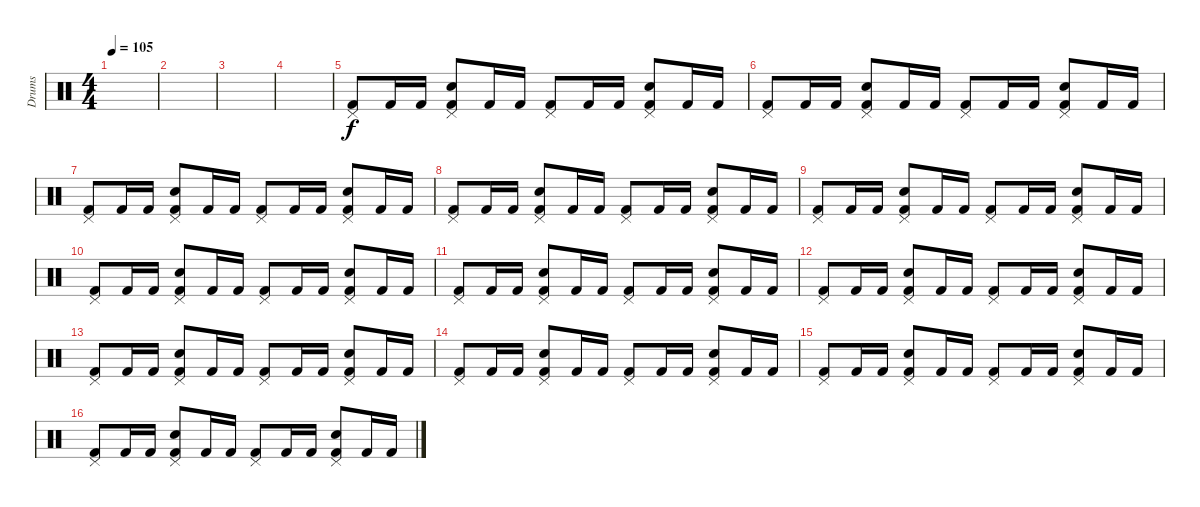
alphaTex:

\track ("Drums" "Drums") {instrument percussion}
\staff {score}
\articulation defaults
\ts (4 4)
\tempo 105
\clef neutral
\ks c
|
|
|
|
("Pedal Hi-Hat (hit)" "Kick (hit) 2").8 "Kick (hit) 2".16 "Kick (hit) 2".16 ("Pedal Hi-Hat (hit)" "Electric Snare (hit)" "Kick (hit) 2").8 "Kick (hit) 2".16 "Kick (hit) 2".16 ("Pedal Hi-Hat (hit)" "Kick (hit) 2").8 "Kick (hit) 2".16 "Kick (hit) 2".16 ("Pedal Hi-Hat (hit)" "Electric Snare (hit)" "Kick (hit) 2").8 "Kick (hit) 2".16 "Kick (hit) 2".16 |
("Pedal Hi-Hat (hit)" "Kick (hit) 2").8 "Kick (hit) 2".16 "Kick (hit) 2".16 ("Pedal Hi-Hat (hit)" "Electric Snare (hit)" "Kick (hit) 2").8 "Kick (hit) 2".16 "Kick (hit) 2".16 ("Pedal Hi-Hat (hit)" "Kick (hit) 2").8 "Kick (hit) 2".16 "Kick (hit) 2".16 ("Pedal Hi-Hat (hit)" "Electric Snare (hit)" "Kick (hit) 2").8 "Kick (hit) 2".16 "Kick (hit) 2".16 |
("Pedal Hi-Hat (hit)" "Kick (hit) 2").8 "Kick (hit) 2".16 "Kick (hit) 2".16 ("Pedal Hi-Hat (hit)" "Electric Snare (hit)" "Kick (hit) 2").8 "Kick (hit) 2".16 "Kick (hit) 2".16 ("Pedal Hi-Hat (hit)" "Kick (hit) 2").8 "Kick (hit) 2".16 "Kick (hit) 2".16 ("Pedal Hi-Hat (hit)" "Electric Snare (hit)" "Kick (hit) 2").8 "Kick (hit) 2".16 "Kick (hit) 2".16 |
("Pedal Hi-Hat (hit)" "Kick (hit) 2").8 "Kick (hit) 2".16 "Kick (hit) 2".16 ("Pedal Hi-Hat (hit)" "Electric Snare (hit)" "Kick (hit) 2").8 "Kick (hit) 2".16 "Kick (hit) 2".16 ("Pedal Hi-Hat (hit)" "Kick (hit) 2").8 "Kick (hit) 2".16 "Kick (hit) 2".16 ("Pedal Hi-Hat (hit)" "Electric Snare (hit)" "Kick (hit) 2").8 "Kick (hit) 2".16 "Kick (hit) 2".16 |
("Pedal Hi-Hat (hit)" "Kick (hit) 2").8 "Kick (hit) 2".16 "Kick (hit) 2".16 ("Pedal Hi-Hat (hit)" "Electric Snare (hit)" "Kick (hit) 2").8 "Kick (hit) 2".16 "Kick (hit) 2".16 ("Pedal Hi-Hat (hit)" "Kick (hit) 2").8 "Kick (hit) 2".16 "Kick (hit) 2".16 ("Pedal Hi-Hat (hit)" "Electric Snare (hit)" "Kick (hit) 2").8 "Kick (hit) 2".16 "Kick (hit) 2".16 |
("Pedal Hi-Hat (hit)" "Kick (hit) 2").8 "Kick (hit) 2".16 "Kick (hit) 2".16 ("Pedal Hi-Hat (hit)" "Electric Snare (hit)" "Kick (hit) 2").8 "Kick (hit) 2".16 "Kick (hit) 2".16 ("Pedal Hi-Hat (hit)" "Kick (hit) 2").8 "Kick (hit) 2".16 "Kick (hit) 2".16 ("Pedal Hi-Hat (hit)" "Electric Snare (hit)" "Kick (hit) 2").8 "Kick (hit) 2".16 "Kick (hit) 2".16 |
("Pedal Hi-Hat (hit)" "Kick (hit) 2").8 "Kick (hit) 2".16 "Kick (hit) 2".16 ("Pedal Hi-Hat (hit)" "Electric Snare (hit)" "Kick (hit) 2").8 "Kick (hit) 2".16 "Kick (hit) 2".16 ("Pedal Hi-Hat (hit)" "Kick (hit) 2").8 "Kick (hit) 2".16 "Kick (hit) 2".16 ("Pedal Hi-Hat (hit)" "Electric Snare (hit)" "Kick (hit) 2").8 "Kick (hit) 2".16 "Kick (hit) 2".16 |
("Pedal Hi-Hat (hit)" "Kick (hit) 2").8 "Kick (hit) 2".16 "Kick (hit) 2".16 ("Pedal Hi-Hat (hit)" "Electric Snare (hit)" "Kick (hit) 2").8 "Kick (hit) 2".16 "Kick (hit) 2".16 ("Pedal Hi-Hat (hit)" "Kick (hit) 2").8 "Kick (hit) 2".16 "Kick (hit) 2".16 ("Pedal Hi-Hat (hit)" "Electric Snare (hit)" "Kick (hit) 2").8 "Kick (hit) 2".16 "Kick (hit) 2".16 |
("Pedal Hi-Hat (hit)" "Kick (hit) 2").8 "Kick (hit) 2".16 "Kick (hit) 2".16 ("Pedal Hi-Hat (hit)" "Electric Snare (hit)" "Kick (hit) 2").8 "Kick (hit) 2".16 "Kick (hit) 2".16 ("Pedal Hi-Hat (hit)" "Kick (hit) 2").8 "Kick (hit) 2".16 "Kick (hit) 2".16 ("Pedal Hi-Hat (hit)" "Electric Snare (hit)" "Kick (hit) 2").8 "Kick (hit) 2".16 "Kick (hit) 2".16 |
("Pedal Hi-Hat (hit)" "Kick (hit) 2").8 "Kick (hit) 2".16 "Kick (hit) 2".16 ("Pedal Hi-Hat (hit)" "Electric Snare (hit)" "Kick (hit) 2").8 "Kick (hit) 2".16 "Kick (hit) 2".16 ("Pedal Hi-Hat (hit)" "Kick (hit) 2").8 "Kick (hit) 2".16 "Kick (hit) 2".16 ("Pedal Hi-Hat (hit)" "Electric Snare (hit)" "Kick (hit) 2").8 "Kick (hit) 2".16 "Kick (hit) 2".16 |
("Pedal Hi-Hat (hit)" "Kick (hit) 2").8 "Kick (hit) 2".16 "Kick (hit) 2".16 ("Pedal Hi-Hat (hit)" "Electric Snare (hit)" "Kick (hit) 2").8 "Kick (hit) 2".16 "Kick (hit) 2".16 ("Pedal Hi-Hat (hit)" "Kick (hit) 2").8 "Kick (hit) 2".16 "Kick (hit) 2".16 ("Pedal Hi-Hat (hit)" "Electric Snare (hit)" "Kick (hit) 2").8 "Kick (hit) 2".16 "Kick (hit) 2".16 |
("Pedal Hi-Hat (hit)" "Kick (hit) 2").8 "Kick (hit) 2".16 "Kick (hit) 2".16 ("Pedal Hi-Hat (hit)" "Electric Snare (hit)" "Kick (hit) 2").8 "Kick (hit) 2".16 "Kick (hit) 2".16 ("Pedal Hi-Hat (hit)" "Kick (hit) 2").8 "Kick (hit) 2".16 "Kick (hit) 2".16 ("Pedal Hi-Hat (hit)" "Electric Snare (hit)" "Kick (hit) 2").8 "Kick (hit) 2".16 "Kick (hit) 2".16
